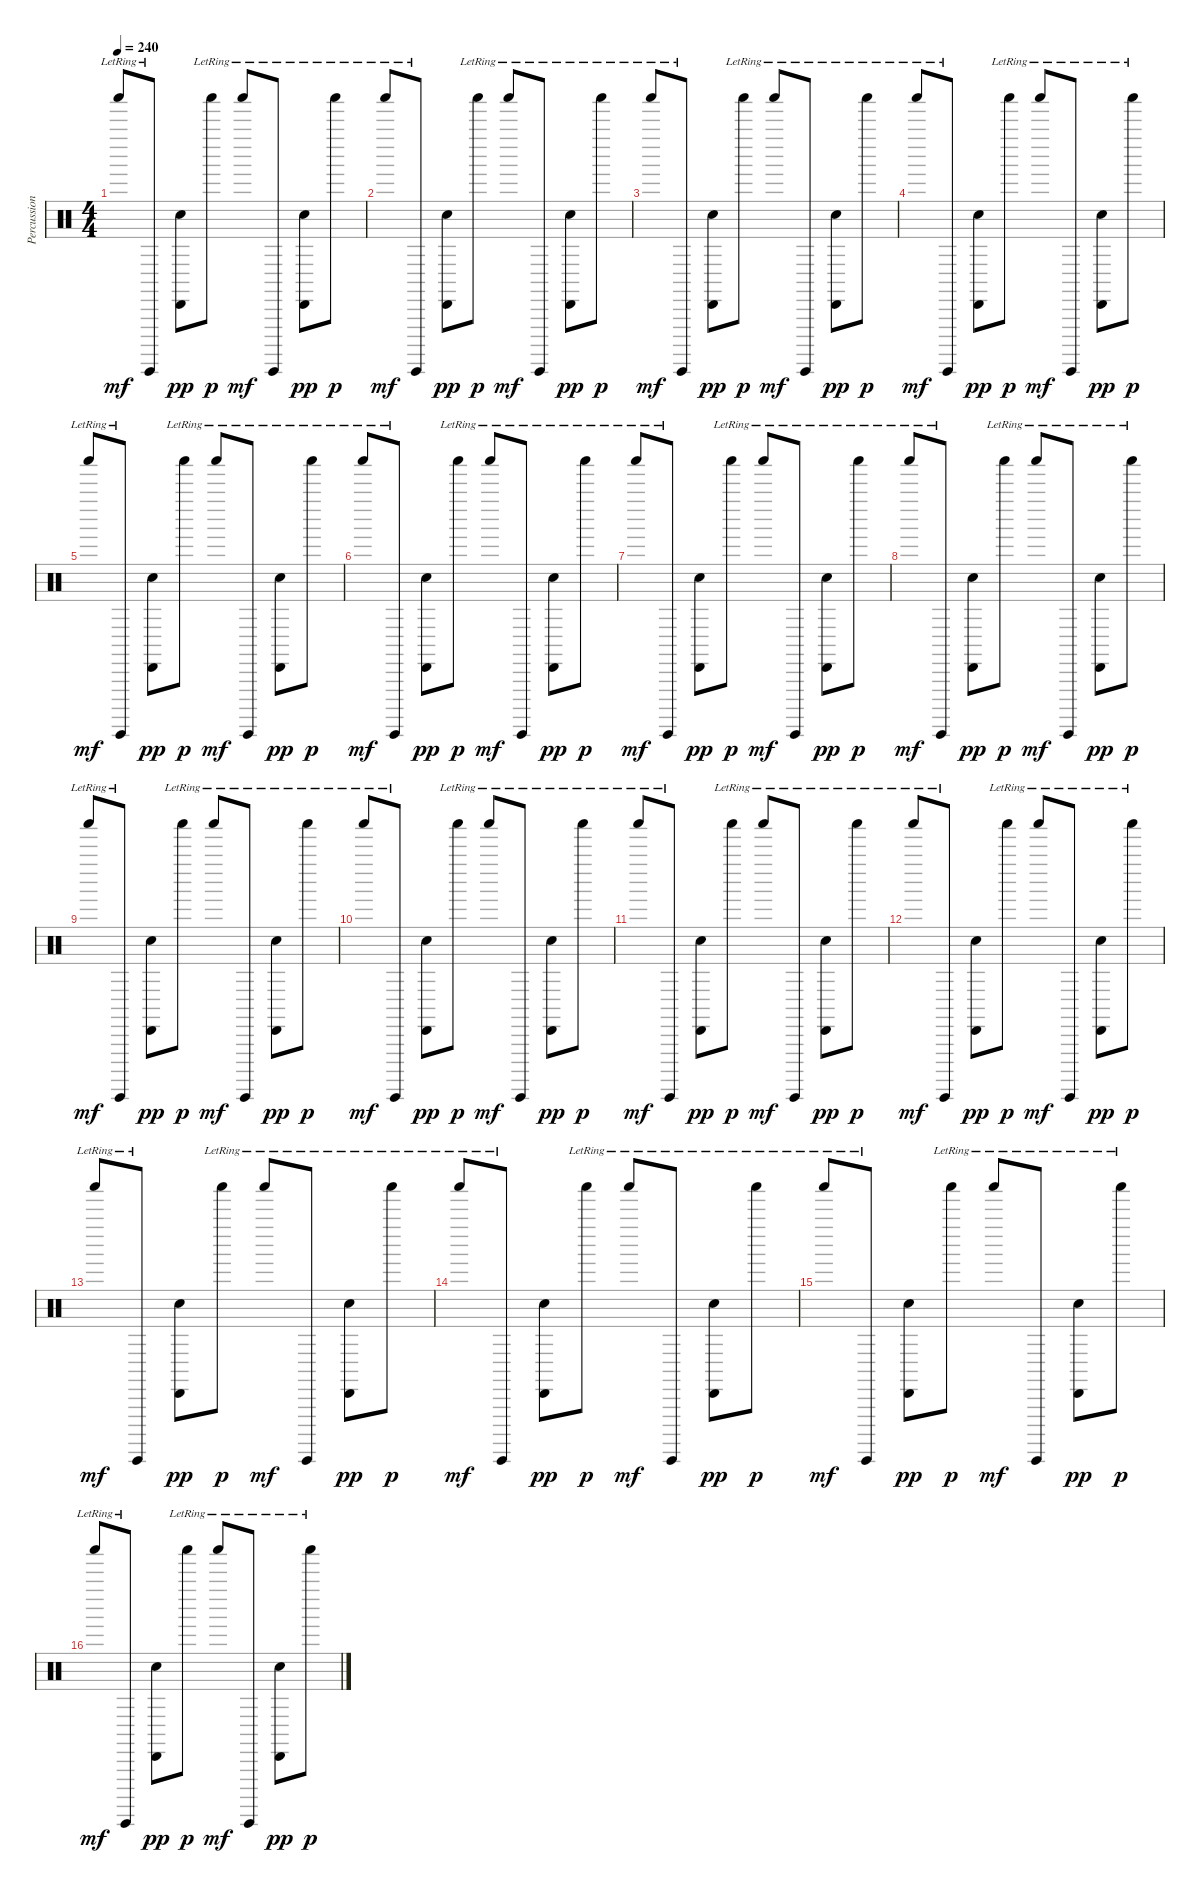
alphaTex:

\track ("Percussions" "Percussion") {instrument percussion}
\staff {score}
\articulation defaults
\ts (4 4)
\tempo 240
\clef neutral
\ks c "Shaker (hit)"{lr}.8{dy mf} "Guiro (hit)"{lr}.8
("Cabasa (hit)" "Snare (hit) 2").8{dy pp} "Shaker (hit)"{lr}.8{dy p} "Shaker (hit)"{lr}.8{dy mf} "Guiro (hit)"{lr}.8 ("Cabasa (hit)"{lr} "Snare (hit) 2").8{dy pp} "Shaker (hit)"{lr}.8{dy p} |
"Shaker (hit)"{lr}.8{dy mf} "Guiro (hit)"{lr}.8 ("Cabasa (hit)" "Snare (hit) 2").8{dy pp} "Shaker (hit)"{lr}.8{dy p} "Shaker (hit)"{lr}.8{dy mf} "Guiro (hit)"{lr}.8 ("Cabasa (hit)"{lr} "Snare (hit) 2").8{dy pp} "Shaker (hit)"{lr}.8{dy p} |
"Shaker (hit)"{lr}.8{dy mf} "Guiro (hit)"{lr}.8 ("Cabasa (hit)" "Snare (hit) 2").8{dy pp} "Shaker (hit)"{lr}.8{dy p} "Shaker (hit)"{lr}.8{dy mf} "Guiro (hit)"{lr}.8 ("Cabasa (hit)"{lr} "Snare (hit) 2").8{dy pp} "Shaker (hit)"{lr}.8{dy p} |
"Shaker (hit)"{lr}.8{dy mf} "Guiro (hit)"{lr}.8 ("Cabasa (hit)" "Snare (hit) 2").8{dy pp} "Shaker (hit)"{lr}.8{dy p} "Shaker (hit)"{lr}.8{dy mf} "Guiro (hit)"{lr}.8 ("Cabasa (hit)"{lr} "Snare (hit) 2").8{dy pp} "Shaker (hit)"{lr}.8{dy p} |
"Shaker (hit)"{lr}.8{dy mf} "Guiro (hit)"{lr}.8 ("Cabasa (hit)" "Snare (hit) 2").8{dy pp} "Shaker (hit)"{lr}.8{dy p} "Shaker (hit)"{lr}.8{dy mf} "Guiro (hit)"{lr}.8 ("Cabasa (hit)"{lr} "Snare (hit) 2").8{dy pp} "Shaker (hit)"{lr}.8{dy p} |
"Shaker (hit)"{lr}.8{dy mf} "Guiro (hit)"{lr}.8 ("Cabasa (hit)" "Snare (hit) 2").8{dy pp} "Shaker (hit)"{lr}.8{dy p} "Shaker (hit)"{lr}.8{dy mf} "Guiro (hit)"{lr}.8 ("Cabasa (hit)"{lr} "Snare (hit) 2").8{dy pp} "Shaker (hit)"{lr}.8{dy p} |
"Shaker (hit)"{lr}.8{dy mf} "Guiro (hit)"{lr}.8 ("Cabasa (hit)" "Snare (hit) 2").8{dy pp} "Shaker (hit)"{lr}.8{dy p} "Shaker (hit)"{lr}.8{dy mf} "Guiro (hit)"{lr}.8 ("Cabasa (hit)"{lr} "Snare (hit) 2").8{dy pp} "Shaker (hit)"{lr}.8{dy p} |
"Shaker (hit)"{lr}.8{dy mf} "Guiro (hit)"{lr}.8 ("Cabasa (hit)" "Snare (hit) 2").8{dy pp} "Shaker (hit)"{lr}.8{dy p} "Shaker (hit)"{lr}.8{dy mf} "Guiro (hit)"{lr}.8 ("Cabasa (hit)"{lr} "Snare (hit) 2").8{dy pp} "Shaker (hit)"{lr}.8{dy p} |
"Shaker (hit)"{lr}.8{dy mf} "Guiro (hit)"{lr}.8 ("Cabasa (hit)" "Snare (hit) 2").8{dy pp} "Shaker (hit)"{lr}.8{dy p} "Shaker (hit)"{lr}.8{dy mf} "Guiro (hit)"{lr}.8 ("Cabasa (hit)"{lr} "Snare (hit) 2").8{dy pp} "Shaker (hit)"{lr}.8{dy p} |
"Shaker (hit)"{lr}.8{dy mf} "Guiro (hit)"{lr}.8 ("Cabasa (hit)" "Snare (hit) 2").8{dy pp} "Shaker (hit)"{lr}.8{dy p} "Shaker (hit)"{lr}.8{dy mf} "Guiro (hit)"{lr}.8 ("Cabasa (hit)"{lr} "Snare (hit) 2").8{dy pp} "Shaker (hit)"{lr}.8{dy p} |
"Shaker (hit)"{lr}.8{dy mf} "Guiro (hit)"{lr}.8 ("Cabasa (hit)" "Snare (hit) 2").8{dy pp} "Shaker (hit)"{lr}.8{dy p} "Shaker (hit)"{lr}.8{dy mf} "Guiro (hit)"{lr}.8 ("Cabasa (hit)"{lr} "Snare (hit) 2").8{dy pp} "Shaker (hit)"{lr}.8{dy p} |
"Shaker (hit)"{lr}.8{dy mf} "Guiro (hit)"{lr}.8 ("Cabasa (hit)" "Snare (hit) 2").8{dy pp} "Shaker (hit)"{lr}.8{dy p} "Shaker (hit)"{lr}.8{dy mf} "Guiro (hit)"{lr}.8 ("Cabasa (hit)"{lr} "Snare (hit) 2").8{dy pp} "Shaker (hit)"{lr}.8{dy p} |
"Shaker (hit)"{lr}.8{dy mf} "Guiro (hit)"{lr}.8 ("Cabasa (hit)" "Snare (hit) 2").8{dy pp} "Shaker (hit)"{lr}.8{dy p} "Shaker (hit)"{lr}.8{dy mf} "Guiro (hit)"{lr}.8 ("Cabasa (hit)"{lr} "Snare (hit) 2").8{dy pp} "Shaker (hit)"{lr}.8{dy p} |
"Shaker (hit)"{lr}.8{dy mf} "Guiro (hit)"{lr}.8 ("Cabasa (hit)" "Snare (hit) 2").8{dy pp} "Shaker (hit)"{lr}.8{dy p} "Shaker (hit)"{lr}.8{dy mf} "Guiro (hit)"{lr}.8 ("Cabasa (hit)"{lr} "Snare (hit) 2").8{dy pp} "Shaker (hit)"{lr}.8{dy p} |
"Shaker (hit)"{lr}.8{dy mf} "Guiro (hit)"{lr}.8 ("Cabasa (hit)" "Snare (hit) 2").8{dy pp} "Shaker (hit)"{lr}.8{dy p} "Shaker (hit)"{lr}.8{dy mf} "Guiro (hit)"{lr}.8 ("Cabasa (hit)"{lr} "Snare (hit) 2").8{dy pp} "Shaker (hit)"{lr}.8{dy p} |
"Shaker (hit)"{lr}.8{dy mf} "Guiro (hit)"{lr}.8 ("Cabasa (hit)" "Snare (hit) 2").8{dy pp} "Shaker (hit)"{lr}.8{dy p} "Shaker (hit)"{lr}.8{dy mf} "Guiro (hit)"{lr}.8 ("Cabasa (hit)"{lr} "Snare (hit) 2").8{dy pp} "Shaker (hit)"{lr}.8{dy p}
